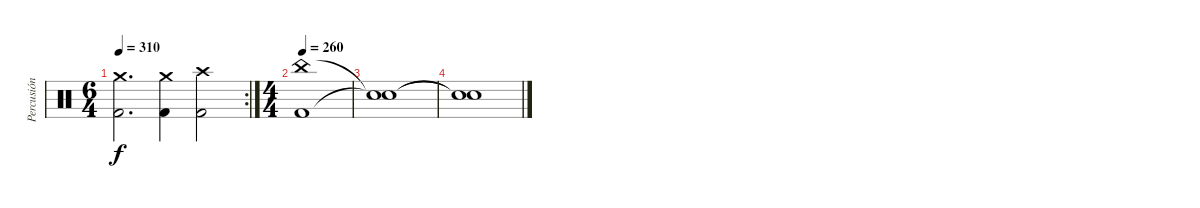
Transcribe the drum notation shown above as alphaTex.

\track ("Percusión" "Percusión") {instrument percussion}
\staff {score}
\articulation defaults
\rc 2
\ts (6 4)
\tempo 310
\clef neutral
\ks c
("Crash medium (hit)" "Kick (hit) 2").2{d dy f} ("Crash medium (hit)" "Kick (hit) 2").4 ("Crash high (hit)" "Kick (hit) 2").2 |
\ts (4 4)
\tempo 260
("China (hit)" "Kick (hit) 2").1 |
("Snare (hit)"{t} "Snare (hit)"{t}).1 |
("Snare (hit)"{t} "Snare (hit)"{t}).1
